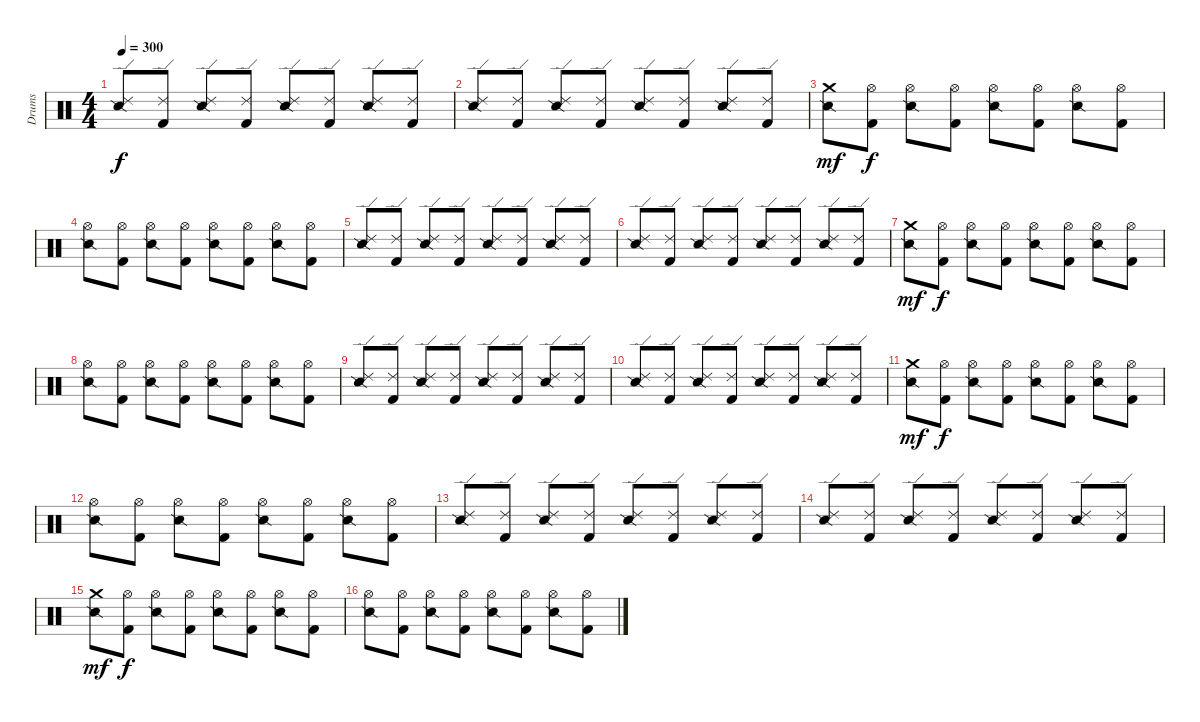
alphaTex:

\track (" Drums" " Drums") {instrument percussion}
\staff {score}
\articulation defaults
\ts (4 4)
\tempo 300
\clef neutral
\ks c
("Ride (edge) 2" "Snare (side stick) 2").8{dy f} ("Ride (edge) 2" "Kick (hit) 2").8 ("Ride (edge) 2" "Snare (side stick) 2").8 ("Ride (edge) 2" "Kick (hit) 2").8 ("Ride (edge) 2" "Snare (side stick) 2").8 ("Ride (edge) 2" "Kick (hit) 2").8 ("Ride (edge) 2" "Snare (side stick) 2").8 ("Ride (edge) 2" "Kick (hit) 2").8 |
("Ride (edge) 2" "Snare (side stick) 2").8 ("Ride (edge) 2" "Kick (hit) 2").8 ("Ride (edge) 2" "Snare (side stick) 2").8 ("Ride (edge) 2" "Kick (hit) 2").8 ("Ride (edge) 2" "Snare (side stick) 2").8 ("Ride (edge) 2" "Kick (hit) 2").8 ("Ride (edge) 2" "Snare (side stick) 2").8 ("Ride (edge) 2" "Kick (hit) 2").8 |
("Crash medium (hit)" "Snare (side stick) 2").8{dy mf} ("Hi-Hat (open)" "Kick (hit) 2").8{dy f} ("Hi-Hat (open)" "Snare (side stick) 2").8 ("Hi-Hat (open)" "Kick (hit) 2").8 ("Hi-Hat (open)" "Snare (side stick) 2").8 ("Hi-Hat (open)" "Kick (hit) 2").8 ("Hi-Hat (open)" "Snare (side stick) 2").8 ("Hi-Hat (open)" "Kick (hit) 2").8 |
("Hi-Hat (open)" "Snare (side stick) 2").8 ("Hi-Hat (open)" "Kick (hit) 2").8 ("Hi-Hat (open)" "Snare (side stick) 2").8 ("Hi-Hat (open)" "Kick (hit) 2").8 ("Hi-Hat (open)" "Snare (side stick) 2").8 ("Hi-Hat (open)" "Kick (hit) 2").8 ("Hi-Hat (open)" "Snare (side stick) 2").8 ("Hi-Hat (open)" "Kick (hit) 2").8 |
("Ride (edge) 2" "Snare (side stick) 2").8 ("Ride (edge) 2" "Kick (hit) 2").8 ("Ride (edge) 2" "Snare (side stick) 2").8 ("Ride (edge) 2" "Kick (hit) 2").8 ("Ride (edge) 2" "Snare (side stick) 2").8 ("Ride (edge) 2" "Kick (hit) 2").8 ("Ride (edge) 2" "Snare (side stick) 2").8 ("Ride (edge) 2" "Kick (hit) 2").8 |
("Ride (edge) 2" "Snare (side stick) 2").8 ("Ride (edge) 2" "Kick (hit) 2").8 ("Ride (edge) 2" "Snare (side stick) 2").8 ("Ride (edge) 2" "Kick (hit) 2").8 ("Ride (edge) 2" "Snare (side stick) 2").8 ("Ride (edge) 2" "Kick (hit) 2").8 ("Ride (edge) 2" "Snare (side stick) 2").8 ("Ride (edge) 2" "Kick (hit) 2").8 |
("Crash medium (hit)" "Snare (side stick) 2").8{dy mf} ("Hi-Hat (open)" "Kick (hit) 2").8{dy f} ("Hi-Hat (open)" "Snare (side stick) 2").8 ("Hi-Hat (open)" "Kick (hit) 2").8 ("Hi-Hat (open)" "Snare (side stick) 2").8 ("Hi-Hat (open)" "Kick (hit) 2").8 ("Hi-Hat (open)" "Snare (side stick) 2").8 ("Hi-Hat (open)" "Kick (hit) 2").8 |
("Hi-Hat (open)" "Snare (side stick) 2").8 ("Hi-Hat (open)" "Kick (hit) 2").8 ("Hi-Hat (open)" "Snare (side stick) 2").8 ("Hi-Hat (open)" "Kick (hit) 2").8 ("Hi-Hat (open)" "Snare (side stick) 2").8 ("Hi-Hat (open)" "Kick (hit) 2").8 ("Hi-Hat (open)" "Snare (side stick) 2").8 ("Hi-Hat (open)" "Kick (hit) 2").8 |
("Ride (edge) 2" "Snare (side stick) 2").8 ("Ride (edge) 2" "Kick (hit) 2").8 ("Ride (edge) 2" "Snare (side stick) 2").8 ("Ride (edge) 2" "Kick (hit) 2").8 ("Ride (edge) 2" "Snare (side stick) 2").8 ("Ride (edge) 2" "Kick (hit) 2").8 ("Ride (edge) 2" "Snare (side stick) 2").8 ("Ride (edge) 2" "Kick (hit) 2").8 |
("Ride (edge) 2" "Snare (side stick) 2").8 ("Ride (edge) 2" "Kick (hit) 2").8 ("Ride (edge) 2" "Snare (side stick) 2").8 ("Ride (edge) 2" "Kick (hit) 2").8 ("Ride (edge) 2" "Snare (side stick) 2").8 ("Ride (edge) 2" "Kick (hit) 2").8 ("Ride (edge) 2" "Snare (side stick) 2").8 ("Ride (edge) 2" "Kick (hit) 2").8 |
("Crash medium (hit)" "Snare (side stick) 2").8{dy mf} ("Hi-Hat (open)" "Kick (hit) 2").8{dy f} ("Hi-Hat (open)" "Snare (side stick) 2").8 ("Hi-Hat (open)" "Kick (hit) 2").8 ("Hi-Hat (open)" "Snare (side stick) 2").8 ("Hi-Hat (open)" "Kick (hit) 2").8 ("Hi-Hat (open)" "Snare (side stick) 2").8 ("Hi-Hat (open)" "Kick (hit) 2").8 |
("Hi-Hat (open)" "Snare (side stick) 2").8 ("Hi-Hat (open)" "Kick (hit) 2").8 ("Hi-Hat (open)" "Snare (side stick) 2").8 ("Hi-Hat (open)" "Kick (hit) 2").8 ("Hi-Hat (open)" "Snare (side stick) 2").8 ("Hi-Hat (open)" "Kick (hit) 2").8 ("Hi-Hat (open)" "Snare (side stick) 2").8 ("Hi-Hat (open)" "Kick (hit) 2").8 |
("Ride (edge) 2" "Snare (side stick) 2").8 ("Ride (edge) 2" "Kick (hit) 2").8 ("Ride (edge) 2" "Snare (side stick) 2").8 ("Ride (edge) 2" "Kick (hit) 2").8 ("Ride (edge) 2" "Snare (side stick) 2").8 ("Ride (edge) 2" "Kick (hit) 2").8 ("Ride (edge) 2" "Snare (side stick) 2").8 ("Ride (edge) 2" "Kick (hit) 2").8 |
("Ride (edge) 2" "Snare (side stick) 2").8 ("Ride (edge) 2" "Kick (hit) 2").8 ("Ride (edge) 2" "Snare (side stick) 2").8 ("Ride (edge) 2" "Kick (hit) 2").8 ("Ride (edge) 2" "Snare (side stick) 2").8 ("Ride (edge) 2" "Kick (hit) 2").8 ("Ride (edge) 2" "Snare (side stick) 2").8 ("Ride (edge) 2" "Kick (hit) 2").8 |
("Crash medium (hit)" "Snare (side stick) 2").8{dy mf} ("Hi-Hat (open)" "Kick (hit) 2").8{dy f} ("Hi-Hat (open)" "Snare (side stick) 2").8 ("Hi-Hat (open)" "Kick (hit) 2").8 ("Hi-Hat (open)" "Snare (side stick) 2").8 ("Hi-Hat (open)" "Kick (hit) 2").8 ("Hi-Hat (open)" "Snare (side stick) 2").8 ("Hi-Hat (open)" "Kick (hit) 2").8 |
("Hi-Hat (open)" "Snare (side stick) 2").8 ("Hi-Hat (open)" "Kick (hit) 2").8 ("Hi-Hat (open)" "Snare (side stick) 2").8 ("Hi-Hat (open)" "Kick (hit) 2").8 ("Hi-Hat (open)" "Snare (side stick) 2").8 ("Hi-Hat (open)" "Kick (hit) 2").8 ("Hi-Hat (open)" "Snare (side stick) 2").8 ("Hi-Hat (open)" "Kick (hit) 2").8
